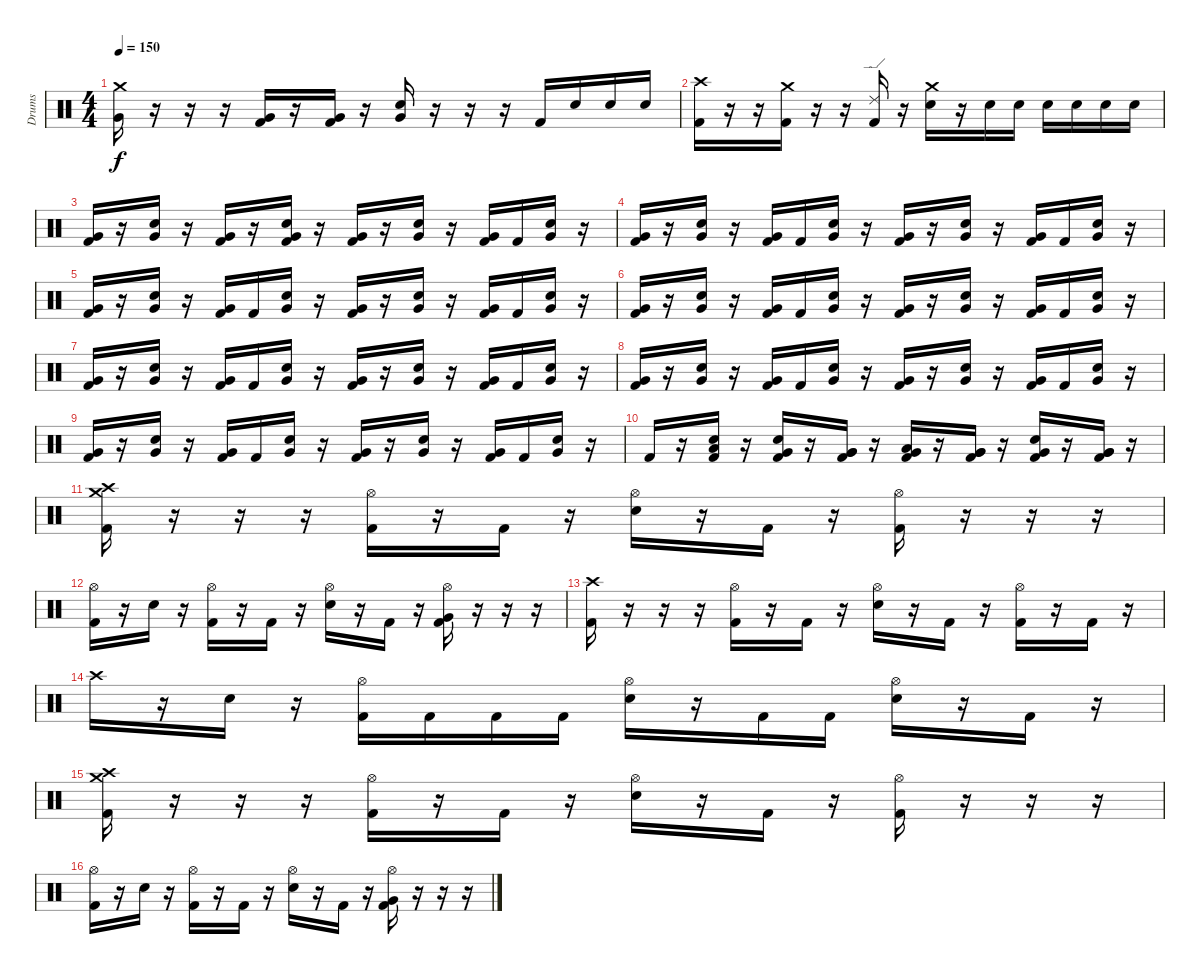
\track ("Drums" "Drums") {instrument percussion}
\staff {score}
\articulation defaults
\ts (4 4)
\tempo 150
\clef neutral
\ks c
("Crash medium (hit)" "Very Low Tom (hit)").16{dy f} r.16 r.16 r.16 ("Very Low Tom (hit)" "Kick (hit) 2").16 r.16 ("Very Low Tom (hit)" "Kick (hit) 2").16 r.16 ("Very Low Tom (hit)" "Electric Snare (hit)").16 r.16 r.16 r.16 "Kick (hit) 2".16 "Electric Snare (hit)".16 "Electric Snare (hit)".16 "Electric Snare (hit)".16 |
("Crash high (hit)" "Kick (hit) 2").16 r.16 r.16 ("Crash medium (hit)" "Kick (hit) 2").16 r.16 r.16 ("Ride (edge) 2" "Kick (hit) 2").16 r.16 ("Crash medium (hit)" "Electric Snare (hit)").16 r.16 "Electric Snare (hit)".16 "Electric Snare (hit)".16 "Electric Snare (hit)".16 "Electric Snare (hit)".16 "Electric Snare (hit)".16 "Electric Snare (hit)".16 |
("Very Low Tom (hit)" "Kick (hit) 2").16 r.16 ("Very Low Tom (hit)" "Electric Snare (hit)").16 r.16 ("Very Low Tom (hit)" "Kick (hit) 2").16 r.16 ("Very Low Tom (hit)" "Electric Snare (hit)" "Kick (hit) 2").16 r.16 ("Very Low Tom (hit)" "Kick (hit) 2").16 r.16 ("Very Low Tom (hit)" "Electric Snare (hit)").16 r.16 ("Very Low Tom (hit)" "Kick (hit) 2").16 "Kick (hit) 2".16 ("Very Low Tom (hit)" "Electric Snare (hit)").16 r.16 |
("Very Low Tom (hit)" "Kick (hit) 2").16 r.16 ("Very Low Tom (hit)" "Electric Snare (hit)").16 r.16 ("Very Low Tom (hit)" "Kick (hit) 2").16 "Kick (hit) 2".16 ("Very Low Tom (hit)" "Electric Snare (hit)").16 r.16 ("Very Low Tom (hit)" "Kick (hit) 2").16 r.16 ("Very Low Tom (hit)" "Electric Snare (hit)").16 r.16 ("Very Low Tom (hit)" "Kick (hit) 2").16 "Kick (hit) 2".16 ("Very Low Tom (hit)" "Electric Snare (hit)").16 r.16 |
("Very Low Tom (hit)" "Kick (hit) 2").16 r.16 ("Very Low Tom (hit)" "Electric Snare (hit)").16 r.16 ("Very Low Tom (hit)" "Kick (hit) 2").16 "Kick (hit) 2".16 ("Very Low Tom (hit)" "Electric Snare (hit)").16 r.16 ("Very Low Tom (hit)" "Kick (hit) 2").16 r.16 ("Very Low Tom (hit)" "Electric Snare (hit)").16 r.16 ("Very Low Tom (hit)" "Kick (hit) 2").16 "Kick (hit) 2".16 ("Very Low Tom (hit)" "Electric Snare (hit)").16 r.16 |
("Very Low Tom (hit)" "Kick (hit) 2").16 r.16 ("Very Low Tom (hit)" "Electric Snare (hit)").16 r.16 ("Very Low Tom (hit)" "Kick (hit) 2").16 "Kick (hit) 2".16 ("Very Low Tom (hit)" "Electric Snare (hit)").16 r.16 ("Very Low Tom (hit)" "Kick (hit) 2").16 r.16 ("Very Low Tom (hit)" "Electric Snare (hit)").16 r.16 ("Very Low Tom (hit)" "Kick (hit) 2").16 "Kick (hit) 2".16 ("Very Low Tom (hit)" "Electric Snare (hit)").16 r.16 |
("Very Low Tom (hit)" "Kick (hit) 2").16 r.16 ("Very Low Tom (hit)" "Electric Snare (hit)").16 r.16 ("Very Low Tom (hit)" "Kick (hit) 2").16 "Kick (hit) 2".16 ("Very Low Tom (hit)" "Electric Snare (hit)").16 r.16 ("Very Low Tom (hit)" "Kick (hit) 2").16 r.16 ("Very Low Tom (hit)" "Electric Snare (hit)").16 r.16 ("Very Low Tom (hit)" "Kick (hit) 2").16 "Kick (hit) 2".16 ("Very Low Tom (hit)" "Electric Snare (hit)").16 r.16 |
("Very Low Tom (hit)" "Kick (hit) 2").16 r.16 ("Very Low Tom (hit)" "Electric Snare (hit)").16 r.16 ("Very Low Tom (hit)" "Kick (hit) 2").16 "Kick (hit) 2".16 ("Very Low Tom (hit)" "Electric Snare (hit)").16 r.16 ("Very Low Tom (hit)" "Kick (hit) 2").16 r.16 ("Very Low Tom (hit)" "Electric Snare (hit)").16 r.16 ("Very Low Tom (hit)" "Kick (hit) 2").16 "Kick (hit) 2".16 ("Very Low Tom (hit)" "Electric Snare (hit)").16 r.16 |
("Very Low Tom (hit)" "Kick (hit) 2").16 r.16 ("Very Low Tom (hit)" "Electric Snare (hit)").16 r.16 ("Very Low Tom (hit)" "Kick (hit) 2").16 "Kick (hit) 2".16 ("Very Low Tom (hit)" "Electric Snare (hit)").16 r.16 ("Very Low Tom (hit)" "Kick (hit) 2").16 r.16 ("Very Low Tom (hit)" "Electric Snare (hit)").16 r.16 ("Very Low Tom (hit)" "Kick (hit) 2").16 "Kick (hit) 2".16 ("Very Low Tom (hit)" "Electric Snare (hit)").16 r.16 |
"Kick (hit) 2".16 r.16 ("Low Tom (hit)" "Electric Snare (hit)" "Kick (hit) 2").16 r.16 ("Very Low Tom (hit)" "Electric Snare (hit)" "Kick (hit) 2").16 r.16 ("Very Low Tom (hit)" "Very Low Tom (hit)" "Kick (hit) 2").16 r.16 ("Low Tom (hit)" "Very Low Tom (hit)" "Kick (hit) 2").16 r.16 ("Very Low Tom (hit)" "Very Low Tom (hit)" "Kick (hit) 2").16 r.16 ("Very Low Tom (hit)" "Electric Snare (hit)" "Kick (hit) 2").16 r.16 ("Very Low Tom (hit)" "Very Low Tom (hit)" "Kick (hit) 2").16 r.16 |
("Crash medium (hit)" "Crash high (hit)" "Kick (hit) 2").16 r.16 r.16 r.16 ("Hi-Hat (open)" "Kick (hit) 2").16 r.16 "Kick (hit) 2".16 r.16 ("Hi-Hat (open)" "Electric Snare (hit)").16 r.16 "Kick (hit) 2".16 r.16 ("Hi-Hat (open)" "Kick (hit) 2").16 r.16 r.16 r.16 |
("Hi-Hat (open)" "Kick (hit) 2").16 r.16 "Electric Snare (hit)".16 r.16 ("Hi-Hat (open)" "Kick (hit) 2").16 r.16 "Kick (hit) 2".16 r.16 ("Hi-Hat (open)" "Electric Snare (hit)").16 r.16 "Kick (hit) 2".16 r.16 ("Hi-Hat (open)" "Very Low Tom (hit)" "Kick (hit) 2").16 r.16 r.16 r.16 |
("Crash high (hit)" "Kick (hit) 2").16 r.16 r.16 r.16 ("Hi-Hat (open)" "Kick (hit) 2").16 r.16 "Kick (hit) 2".16 r.16 ("Hi-Hat (open)" "Electric Snare (hit)").16 r.16 "Kick (hit) 2".16 r.16 ("Hi-Hat (open)" "Kick (hit) 2").16 r.16 "Kick (hit) 2".16 r.16 |
"Crash high (hit)".16 r.16 "Electric Snare (hit)".16 r.16 ("Hi-Hat (open)" "Kick (hit) 2").16 "Kick (hit) 2".16 "Kick (hit) 2".16 "Kick (hit) 2".16 ("Hi-Hat (open)" "Electric Snare (hit)").16 r.16 "Kick (hit) 2".16 "Kick (hit) 2".16 ("Hi-Hat (open)" "Electric Snare (hit)").16 r.16 "Kick (hit) 2".16 r.16 |
("Crash medium (hit)" "Crash high (hit)" "Kick (hit) 2").16 r.16 r.16 r.16 ("Hi-Hat (open)" "Kick (hit) 2").16 r.16 "Kick (hit) 2".16 r.16 ("Hi-Hat (open)" "Electric Snare (hit)").16 r.16 "Kick (hit) 2".16 r.16 ("Hi-Hat (open)" "Kick (hit) 2").16 r.16 r.16 r.16 |
("Hi-Hat (open)" "Kick (hit) 2").16 r.16 "Electric Snare (hit)".16 r.16 ("Hi-Hat (open)" "Kick (hit) 2").16 r.16 "Kick (hit) 2".16 r.16 ("Hi-Hat (open)" "Electric Snare (hit)").16 r.16 "Kick (hit) 2".16 r.16 ("Hi-Hat (open)" "Very Low Tom (hit)" "Kick (hit) 2").16 r.16 r.16 r.16
